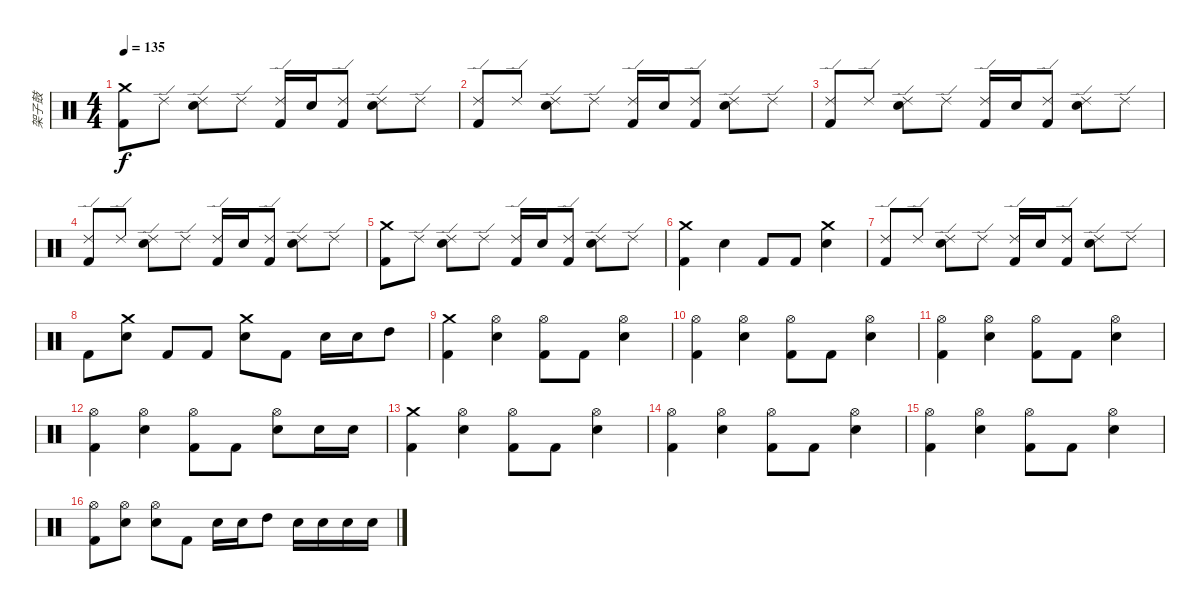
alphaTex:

\track ("架子鼓" "架子鼓") {instrument percussion}
\staff {score}
\articulation defaults
\ts (4 4)
\tempo 135
\clef neutral
\ks c
("Crash medium (hit)" "Kick (hit) 2").8{dy f} "Ride (edge) 2".8 ("Ride (edge) 2" "Electric Snare (hit)").8 "Ride (edge) 2".8 ("Ride (edge) 2" "Kick (hit) 2").16 "Electric Snare (hit)".16 ("Ride (edge) 2" "Kick (hit) 2").8 ("Ride (edge) 2" "Electric Snare (hit)").8 "Ride (edge) 2".8 |
("Ride (edge) 2" "Kick (hit) 2").8 "Ride (edge) 2".8 ("Ride (edge) 2" "Electric Snare (hit)").8 "Ride (edge) 2".8 ("Ride (edge) 2" "Kick (hit) 2").16 "Electric Snare (hit)".16 ("Ride (edge) 2" "Kick (hit) 2").8 ("Ride (edge) 2" "Electric Snare (hit)").8 "Ride (edge) 2".8 |
("Ride (edge) 2" "Kick (hit) 2").8 "Ride (edge) 2".8 ("Ride (edge) 2" "Electric Snare (hit)").8 "Ride (edge) 2".8 ("Ride (edge) 2" "Kick (hit) 2").16 "Electric Snare (hit)".16 ("Ride (edge) 2" "Kick (hit) 2").8 ("Ride (edge) 2" "Electric Snare (hit)").8 "Ride (edge) 2".8 |
("Ride (edge) 2" "Kick (hit) 2").8 "Ride (edge) 2".8 ("Ride (edge) 2" "Electric Snare (hit)").8 "Ride (edge) 2".8 ("Ride (edge) 2" "Kick (hit) 2").16 "Electric Snare (hit)".16 ("Ride (edge) 2" "Kick (hit) 2").8 ("Ride (edge) 2" "Electric Snare (hit)").8 "Ride (edge) 2".8 |
("Crash medium (hit)" "Kick (hit) 2").8 "Ride (edge) 2".8 ("Ride (edge) 2" "Electric Snare (hit)").8 "Ride (edge) 2".8 ("Ride (edge) 2" "Kick (hit) 2").16 "Electric Snare (hit)".16 ("Ride (edge) 2" "Kick (hit) 2").8 ("Ride (edge) 2" "Electric Snare (hit)").8 "Ride (edge) 2".8 |
("Crash medium (hit)" "Kick (hit) 2").4 "Electric Snare (hit)".4 "Kick (hit) 2".8 "Kick (hit) 2".8 ("Crash medium (hit)" "Electric Snare (hit)").4 |
("Ride (edge) 2" "Kick (hit) 2").8 "Ride (edge) 2".8 ("Ride (edge) 2" "Electric Snare (hit)").8 "Ride (edge) 2".8 ("Ride (edge) 2" "Kick (hit) 2").16 "Electric Snare (hit)".16 ("Ride (edge) 2" "Kick (hit) 2").8 ("Ride (edge) 2" "Electric Snare (hit)").8 "Ride (edge) 2".8 |
"Kick (hit) 2".8 ("Crash medium (hit)" "Electric Snare (hit)").8 "Kick (hit) 2".8 "Kick (hit) 2".8 ("Crash medium (hit)" "Electric Snare (hit)").8 "Kick (hit) 2".8 "Electric Snare (hit)".16 "Electric Snare (hit)".16 "High Tom (hit)".8 |
("Crash medium (hit)" "Kick (hit) 2").4 ("Hi-Hat (open)" "Electric Snare (hit)").4 ("Hi-Hat (open)" "Kick (hit) 2").8 "Kick (hit) 2".8 ("Hi-Hat (open)" "Electric Snare (hit)").4 |
("Hi-Hat (open)" "Kick (hit) 2").4 ("Hi-Hat (open)" "Electric Snare (hit)").4 ("Hi-Hat (open)" "Kick (hit) 2").8 "Kick (hit) 2".8 ("Hi-Hat (open)" "Electric Snare (hit)").4 |
("Hi-Hat (open)" "Kick (hit) 2").4 ("Hi-Hat (open)" "Electric Snare (hit)").4 ("Hi-Hat (open)" "Kick (hit) 2").8 "Kick (hit) 2".8 ("Hi-Hat (open)" "Electric Snare (hit)").4 |
("Hi-Hat (open)" "Kick (hit) 2").4 ("Hi-Hat (open)" "Electric Snare (hit)").4 ("Hi-Hat (open)" "Kick (hit) 2").8 "Kick (hit) 2".8 ("Hi-Hat (open)" "Electric Snare (hit)").8 "Electric Snare (hit)".16 "Electric Snare (hit)".16 |
("Crash medium (hit)" "Kick (hit) 2").4 ("Hi-Hat (open)" "Electric Snare (hit)").4 ("Hi-Hat (open)" "Kick (hit) 2").8 "Kick (hit) 2".8 ("Hi-Hat (open)" "Electric Snare (hit)").4 |
("Hi-Hat (open)" "Kick (hit) 2").4 ("Hi-Hat (open)" "Electric Snare (hit)").4 ("Hi-Hat (open)" "Kick (hit) 2").8 "Kick (hit) 2".8 ("Hi-Hat (open)" "Electric Snare (hit)").4 |
("Hi-Hat (open)" "Kick (hit) 2").4 ("Hi-Hat (open)" "Electric Snare (hit)").4 ("Hi-Hat (open)" "Kick (hit) 2").8 "Kick (hit) 2".8 ("Hi-Hat (open)" "Electric Snare (hit)").4 |
("Hi-Hat (open)" "Kick (hit) 2").8 ("Hi-Hat (open)" "Electric Snare (hit)").8 ("Hi-Hat (open)" "Electric Snare (hit)").8 "Kick (hit) 2".8 "Electric Snare (hit)".16 "Electric Snare (hit)".16 "High Tom (hit)".8 "Electric Snare (hit)".16 "Electric Snare (hit)".16 "Electric Snare (hit)".16 "Electric Snare (hit)".16
